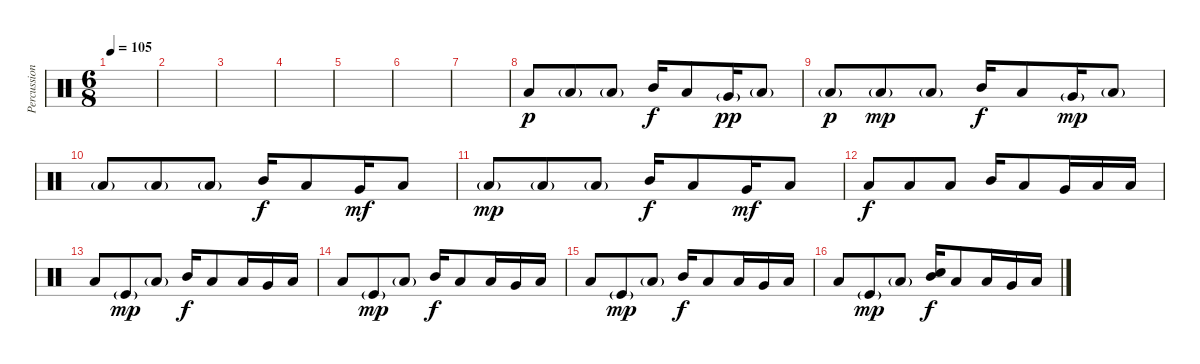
\track ("Percussions" "Percussion") {instrument percussion}
\staff {score}
\articulation defaults
\ts (6 8)
\tempo 105
\clef neutral
\ks c
|
|
|
|
|
|
|
"Low Floor Tom (hit)".8{dy p} "Low Floor Tom (hit)"{g}.8 "Low Floor Tom (hit)"{g}.8 "Mid Tom (hit)".16{dy f} "Low Tom (hit)".8 "Very Low Tom (hit)"{g}.16{dy pp} "Low Floor Tom (hit)"{g}.8 |
"Low Floor Tom (hit)"{g}.8{dy p} "Low Floor Tom (hit)"{g}.8{dy mp} "Low Floor Tom (hit)"{g}.8 "Mid Tom (hit)".16{dy f} "Low Tom (hit)".8 "Very Low Tom (hit)"{g}.16{dy mp} "Low Floor Tom (hit)"{g}.8 |
"Low Floor Tom (hit)"{g}.8 "Low Floor Tom (hit)"{g}.8 "Low Floor Tom (hit)"{g}.8 "Mid Tom (hit)".16{dy f} "Low Tom (hit)".8 "Very Low Tom (hit)".16{dy mf} "Low Floor Tom (hit)".8 |
"Low Floor Tom (hit)"{g}.8{dy mp} "Low Floor Tom (hit)"{g}.8 "Low Floor Tom (hit)"{g}.8 "Mid Tom (hit)".16{dy f} "Low Tom (hit)".8 "Very Low Tom (hit)".16{dy mf} "Low Floor Tom (hit)".8 |
"Low Floor Tom (hit)".8{dy f} "Low Floor Tom (hit)".8 "Low Floor Tom (hit)".8 "Mid Tom (hit)".16 "Low Tom (hit)".8 "Very Low Tom (hit)".16 "Low Floor Tom (hit)".16 "Low Floor Tom (hit)".16 |
"Low Floor Tom (hit)".8 "Kick (hit)"{g}.8{dy mp} "Low Floor Tom (hit)"{g}.8 "Mid Tom (hit)".16{dy f} "Low Tom (hit)".8 "Low Tom (hit)".16 "Very Low Tom (hit)".16 "Low Tom (hit)".16 |
"Low Floor Tom (hit)".8 "Kick (hit)"{g}.8{dy mp} "Low Floor Tom (hit)"{g}.8 "Mid Tom (hit)".16{dy f} "Low Tom (hit)".8 "Low Tom (hit)".16 "Very Low Tom (hit)".16 "Low Tom (hit)".16 |
"Low Floor Tom (hit)".8 "Kick (hit)"{g}.8{dy mp} "Low Floor Tom (hit)"{g}.8 "Mid Tom (hit)".16{dy f} "Low Tom (hit)".8 "Low Tom (hit)".16 "Very Low Tom (hit)".16 "Low Tom (hit)".16 |
"Low Floor Tom (hit)".8 "Kick (hit)"{g}.8{dy mp} "Low Floor Tom (hit)"{g}.8 ("Mid Tom (hit)" "Snare (hit) 2").16{dy f} "Low Tom (hit)".8 "Low Tom (hit)".16 "Very Low Tom (hit)".16 "Low Tom (hit)".16
